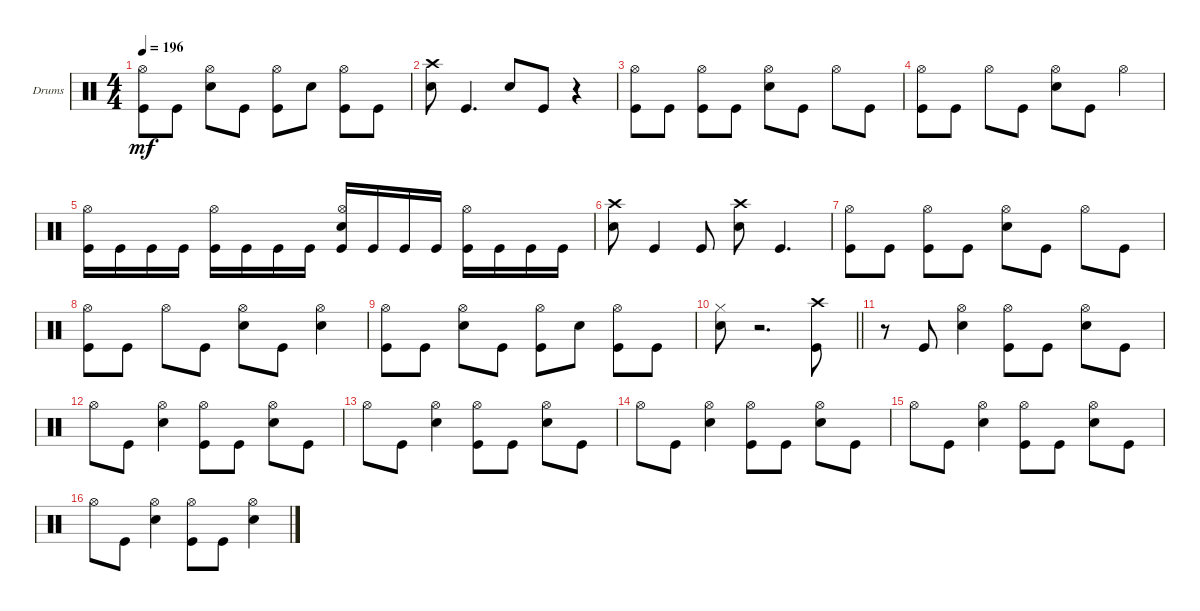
\defaultSystemsLayout 4
\bracketExtendMode groupsimilarinstruments
\firstSystemTrackNameOrientation horizontal
\otherSystemsTrackNameOrientation horizontal
\track ("Drumkit" "Drums") {instrument percussion}
\staff {score}
\articulation defaults
\ts (4 4)
\tempo 196
\clef neutral
\ks c
("Kick (hit)" "Hi-Hat (open)").8{dy mf} "Kick (hit)".8 ("Hi-Hat (open)" "Snare (hit) 2").8 "Kick (hit)".8 ("Hi-Hat (open)" "Kick (hit)").8 "Snare (hit) 2".8 ("Kick (hit)" "Hi-Hat (open)").8 "Kick (hit)".8 |
("Crash high (hit)" "Snare (hit) 2").8 "Kick (hit)".4{d} "Snare (hit) 2".8 "Kick (hit)".8 r.4 |
("Kick (hit)" "Hi-Hat (open)").8 "Kick (hit)".8 ("Kick (hit)" "Hi-Hat (open)").8 "Kick (hit)".8 ("Snare (hit) 2" "Hi-Hat (open)").8 "Kick (hit)".8 "Hi-Hat (open)".8 "Kick (hit)".8 |
("Kick (hit)" "Hi-Hat (open)").8 "Kick (hit)".8 "Hi-Hat (open)".8 "Kick (hit)".8 ("Snare (hit) 2" "Hi-Hat (open)").8 "Kick (hit)".8 "Hi-Hat (open)".4 |
("Kick (hit)" "Hi-Hat (open)").16 "Kick (hit)".16 "Kick (hit)".16 "Kick (hit)".16 ("Kick (hit)" "Hi-Hat (open)").16 "Kick (hit)".16 "Kick (hit)".16 "Kick (hit)".16 ("Snare (hit) 2" "Hi-Hat (open)" "Kick (hit)").16 "Kick (hit)".16 "Kick (hit)".16 "Kick (hit)".16 ("Kick (hit)" "Hi-Hat (open)").16 "Kick (hit)".16 "Kick (hit)".16 "Kick (hit)".16 |
("Crash high (hit)" "Snare (hit) 2").8 "Kick (hit)".4 "Kick (hit)".8 ("Snare (hit) 2" "Crash high (hit)").8 "Kick (hit)".4{d} |
("Kick (hit)" "Hi-Hat (open)").8 "Kick (hit)".8 ("Kick (hit)" "Hi-Hat (open)").8 "Kick (hit)".8 ("Snare (hit) 2" "Hi-Hat (open)").8 "Kick (hit)".8 "Hi-Hat (open)".8 "Kick (hit)".8 |
("Kick (hit)" "Hi-Hat (open)").8 "Kick (hit)".8 "Hi-Hat (open)".8 "Kick (hit)".8 ("Snare (hit) 2" "Hi-Hat (open)").8 "Kick (hit)".8 ("Hi-Hat (open)" "Snare (hit) 2").4 |
("Kick (hit)" "Hi-Hat (open)").8 "Kick (hit)".8 ("Snare (hit) 2" "Hi-Hat (open)").8 "Kick (hit)".8 ("Kick (hit)" "Hi-Hat (open)").8 "Snare (hit) 2".8 ("Kick (hit)" "Hi-Hat (open)").8 "Kick (hit)".8 |
\barLineRight lightlight
("Snare (hit) 2" "Hi-Hat (closed)").8 r.2{d} ("Kick (hit)" "Crash high (hit)").8 |
r.8 "Kick (hit)".8 ("Snare (hit) 2" "Hi-Hat (open)").4 ("Kick (hit)" "Hi-Hat (open)").8 "Kick (hit)".8 ("Snare (hit) 2" "Hi-Hat (open)").8 "Kick (hit)".8 |
"Hi-Hat (open)".8 "Kick (hit)".8 ("Snare (hit) 2" "Hi-Hat (open)").4 ("Kick (hit)" "Hi-Hat (open)").8 "Kick (hit)".8 ("Snare (hit) 2" "Hi-Hat (open)").8 "Kick (hit)".8 |
"Hi-Hat (open)".8 "Kick (hit)".8 ("Snare (hit) 2" "Hi-Hat (open)").4 ("Kick (hit)" "Hi-Hat (open)").8 "Kick (hit)".8 ("Snare (hit) 2" "Hi-Hat (open)").8 "Kick (hit)".8 |
"Hi-Hat (open)".8 "Kick (hit)".8 ("Snare (hit) 2" "Hi-Hat (open)").4 ("Kick (hit)" "Hi-Hat (open)").8 "Kick (hit)".8 ("Snare (hit) 2" "Hi-Hat (open)").8 "Kick (hit)".8 |
"Hi-Hat (open)".8 "Kick (hit)".8 ("Snare (hit) 2" "Hi-Hat (open)").4 ("Kick (hit)" "Hi-Hat (open)").8 "Kick (hit)".8 ("Snare (hit) 2" "Hi-Hat (open)").8 "Kick (hit)".8 |
"Hi-Hat (open)".8 "Kick (hit)".8 ("Snare (hit) 2" "Hi-Hat (open)").4 ("Kick (hit)" "Hi-Hat (open)").8 "Kick (hit)".8 ("Snare (hit) 2" "Hi-Hat (open)").4
